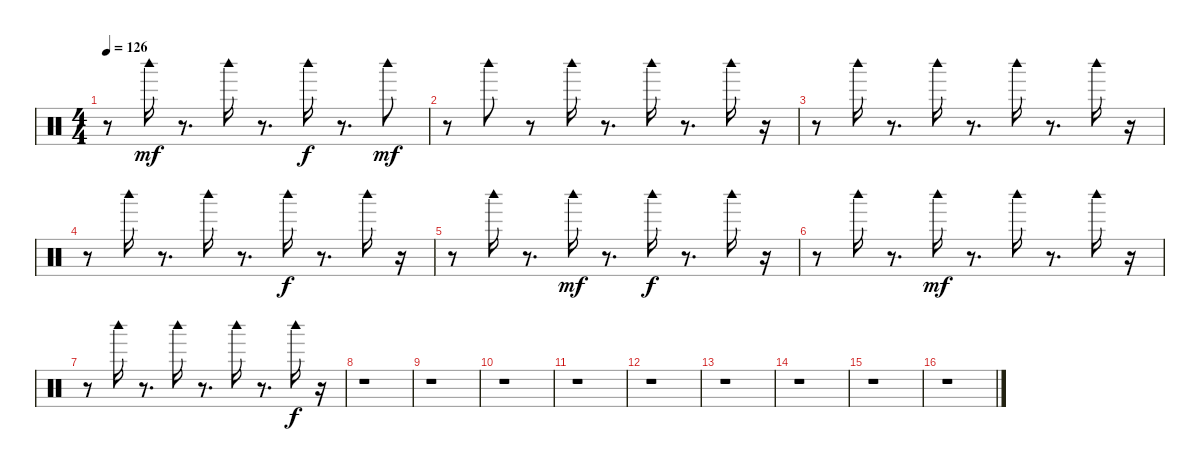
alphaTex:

\track "" {instrument percussion}
\staff {score}
\articulation defaults
\ts (4 4)
\tempo 126
\clef neutral
\ks c
r.8{dy mp} "Woodblock high (hit)".16{dy mf} r.8{d} "Woodblock high (hit)".16 r.8{d} "Woodblock high (hit)".16{dy f} r.8{d} "Woodblock high (hit)".8{dy mf} |
r.8 "Woodblock high (hit)".8 r.8 "Woodblock high (hit)".16 r.8{d} "Woodblock high (hit)".16 r.8{d} "Woodblock high (hit)".16 r.16 |
r.8 "Woodblock high (hit)".16 r.8{d} "Woodblock high (hit)".16 r.8{d} "Woodblock high (hit)".16 r.8{d} "Woodblock high (hit)".16 r.16 |
r.8 "Woodblock high (hit)".16 r.8{d} "Woodblock high (hit)".16 r.8{d} "Woodblock high (hit)".16{dy f} r.8{d} "Woodblock high (hit)".16 r.16 |
r.8 "Woodblock high (hit)".16 r.8{d} "Woodblock high (hit)".16{dy mf} r.8{d} "Woodblock high (hit)".16{dy f} r.8{d} "Woodblock high (hit)".16 r.16 |
r.8 "Woodblock high (hit)".16 r.8{d} "Woodblock high (hit)".16{dy mf} r.8{d} "Woodblock high (hit)".16 r.8{d} "Woodblock high (hit)".16 r.16 |
r.8 "Woodblock high (hit)".16 r.8{d} "Woodblock high (hit)".16 r.8{d} "Woodblock high (hit)".16 r.8{d} "Woodblock high (hit)".16{dy f} r.16 |
r.1 |
r.1 |
r.1 |
r.1 |
r.1 |
r.1 |
r.1 |
r.1 |
r.1
